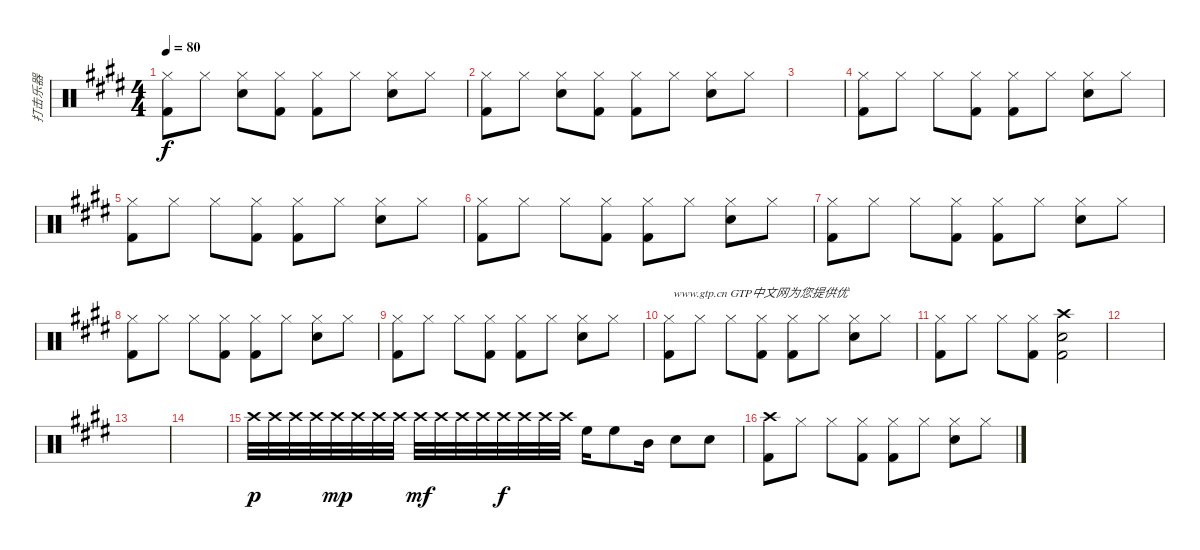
\track ("打击乐器" "打击乐器") {instrument percussion}
\staff {score}
\articulation defaults
\ts (4 4)
\tempo 80
\clef neutral
\ks c#minor
("Hi-Hat (closed)" "Kick (hit) 2").8{dy f} "Hi-Hat (closed)".8 ("Hi-Hat (closed)" "Snare (hit) 2").8 ("Hi-Hat (closed)" "Kick (hit) 2").8 ("Hi-Hat (closed)" "Kick (hit) 2").8 "Hi-Hat (closed)".8 ("Hi-Hat (closed)" "Snare (hit) 2").8 "Hi-Hat (closed)".8 |
("Hi-Hat (closed)" "Kick (hit) 2").8 "Hi-Hat (closed)".8 ("Hi-Hat (closed)" "Snare (hit) 2").8 ("Hi-Hat (closed)" "Kick (hit) 2").8 ("Hi-Hat (closed)" "Kick (hit) 2").8 "Hi-Hat (closed)".8 ("Hi-Hat (closed)" "Snare (hit) 2").8 "Hi-Hat (closed)".8 |
|
("Hi-Hat (closed)" "Kick (hit) 2").8 "Hi-Hat (closed)".8 "Hi-Hat (closed)".8 ("Hi-Hat (closed)" "Kick (hit) 2").8 ("Hi-Hat (closed)" "Kick (hit) 2").8 "Hi-Hat (closed)".8 ("Hi-Hat (closed)" "Snare (hit) 2").8 "Hi-Hat (closed)".8 |
("Hi-Hat (closed)" "Kick (hit) 2").8 "Hi-Hat (closed)".8 "Hi-Hat (closed)".8 ("Hi-Hat (closed)" "Kick (hit) 2").8 ("Hi-Hat (closed)" "Kick (hit) 2").8 "Hi-Hat (closed)".8 ("Hi-Hat (closed)" "Snare (hit) 2").8 "Hi-Hat (closed)".8 |
("Hi-Hat (closed)" "Kick (hit) 2").8 "Hi-Hat (closed)".8 "Hi-Hat (closed)".8 ("Hi-Hat (closed)" "Kick (hit) 2").8 ("Hi-Hat (closed)" "Kick (hit) 2").8 "Hi-Hat (closed)".8 ("Hi-Hat (closed)" "Snare (hit) 2").8 "Hi-Hat (closed)".8 |
("Hi-Hat (closed)" "Kick (hit) 2").8 "Hi-Hat (closed)".8 "Hi-Hat (closed)".8 ("Hi-Hat (closed)" "Kick (hit) 2").8 ("Hi-Hat (closed)" "Kick (hit) 2").8 "Hi-Hat (closed)".8 ("Hi-Hat (closed)" "Snare (hit) 2").8 "Hi-Hat (closed)".8 |
("Hi-Hat (closed)" "Kick (hit) 2").8 "Hi-Hat (closed)".8 "Hi-Hat (closed)".8 ("Hi-Hat (closed)" "Kick (hit) 2").8 ("Hi-Hat (closed)" "Kick (hit) 2").8 "Hi-Hat (closed)".8 ("Hi-Hat (closed)" "Snare (hit) 2").8 "Hi-Hat (closed)".8 |
("Hi-Hat (closed)" "Kick (hit) 2").8 "Hi-Hat (closed)".8 "Hi-Hat (closed)".8 ("Hi-Hat (closed)" "Kick (hit) 2").8 ("Hi-Hat (closed)" "Kick (hit) 2").8 "Hi-Hat (closed)".8 ("Hi-Hat (closed)" "Snare (hit) 2").8 "Hi-Hat (closed)".8{txt "                    www.gtp.cn GTP中文网为您提供优"} |
("Hi-Hat (closed)" "Kick (hit) 2").8 "Hi-Hat (closed)".8 "Hi-Hat (closed)".8 ("Hi-Hat (closed)" "Kick (hit) 2").8 ("Hi-Hat (closed)" "Kick (hit) 2").8 "Hi-Hat (closed)".8 ("Hi-Hat (closed)" "Snare (hit) 2").8 "Hi-Hat (closed)".8 |
("Hi-Hat (closed)" "Kick (hit) 2").8 "Hi-Hat (closed)".8 "Hi-Hat (closed)".8 ("Hi-Hat (closed)" "Kick (hit) 2").8 ("Crash high (hit)" "Snare (hit) 2" "Kick (hit) 2").2 |
|
|
|
"Crash high (hit)".32{dy p} "Crash high (hit)".32 "Crash high (hit)".32 "Crash high (hit)".32 "Crash high (hit)".32{dy mp} "Crash high (hit)".32 "Crash high (hit)".32 "Crash high (hit)".32 "Crash high (hit)".32{dy mf} "Crash high (hit)".32 "Crash high (hit)".32 "Crash high (hit)".32 "Crash high (hit)".32{dy f} "Crash high (hit)".32 "Crash high (hit)".32 "Crash high (hit)".32 "High Floor Tom (hit)".16 "High Floor Tom (hit)".8 "Mid Tom (hit)".16 "Snare (hit) 2".8 "Snare (hit) 2".8 |
("Crash high (hit)" "Kick (hit) 2").8 "Hi-Hat (closed)".8 "Hi-Hat (closed)".8 ("Hi-Hat (closed)" "Kick (hit) 2").8 ("Hi-Hat (closed)" "Kick (hit) 2").8 "Hi-Hat (closed)".8 ("Hi-Hat (closed)" "Snare (hit) 2").8 "Hi-Hat (closed)".8
